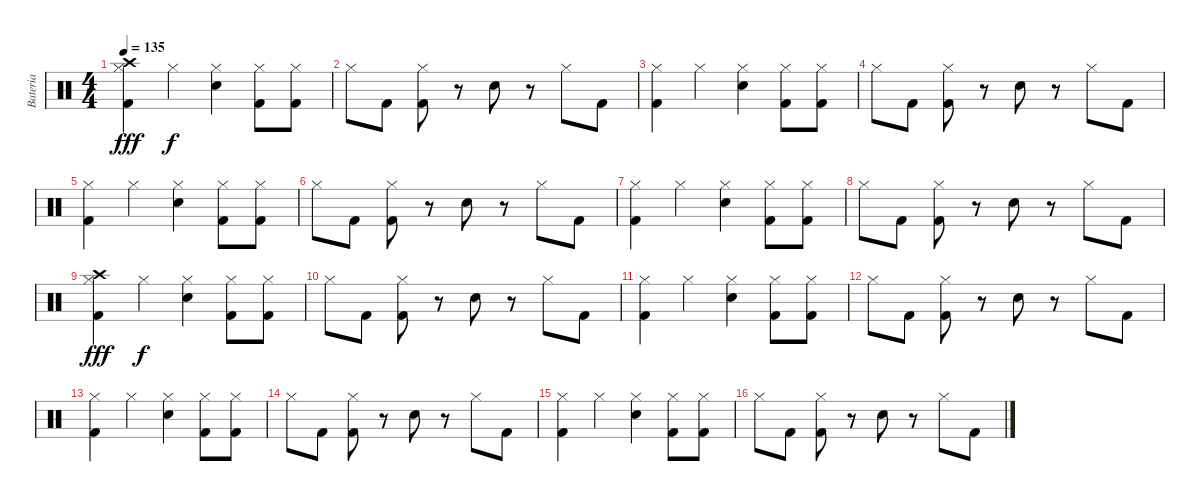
\track ("Bateria" "Bateria") {instrument percussion}
\staff {score}
\articulation defaults
\ts (4 4)
\tempo 135
\clef neutral
\ks c
("Kick (hit) 2" "Hi-Hat (closed)" "Crash high (hit)").4{dy fff} "Hi-Hat (closed)".4{dy f} ("Snare (hit) 2" "Hi-Hat (closed)").4 ("Kick (hit) 2" "Hi-Hat (closed)").8 ("Kick (hit) 2" "Hi-Hat (closed)").8 |
"Hi-Hat (closed)".8 "Kick (hit) 2".8 ("Kick (hit) 2" "Hi-Hat (closed)").8 r.8 "Snare (hit) 2".8 r.8 "Hi-Hat (closed)".8 "Kick (hit) 2".8 |
("Kick (hit) 2" "Hi-Hat (closed)").4 "Hi-Hat (closed)".4 ("Snare (hit) 2" "Hi-Hat (closed)").4 ("Kick (hit) 2" "Hi-Hat (closed)").8 ("Kick (hit) 2" "Hi-Hat (closed)").8 |
"Hi-Hat (closed)".8 "Kick (hit) 2".8 ("Kick (hit) 2" "Hi-Hat (closed)").8 r.8 "Snare (hit) 2".8 r.8 "Hi-Hat (closed)".8 "Kick (hit) 2".8 |
("Kick (hit) 2" "Hi-Hat (closed)").4 "Hi-Hat (closed)".4 ("Snare (hit) 2" "Hi-Hat (closed)").4 ("Kick (hit) 2" "Hi-Hat (closed)").8 ("Kick (hit) 2" "Hi-Hat (closed)").8 |
"Hi-Hat (closed)".8 "Kick (hit) 2".8 ("Kick (hit) 2" "Hi-Hat (closed)").8 r.8 "Snare (hit) 2".8 r.8 "Hi-Hat (closed)".8 "Kick (hit) 2".8 |
("Kick (hit) 2" "Hi-Hat (closed)").4 "Hi-Hat (closed)".4 ("Snare (hit) 2" "Hi-Hat (closed)").4 ("Kick (hit) 2" "Hi-Hat (closed)").8 ("Kick (hit) 2" "Hi-Hat (closed)").8 |
"Hi-Hat (closed)".8 "Kick (hit) 2".8 ("Kick (hit) 2" "Hi-Hat (closed)").8 r.8 "Snare (hit) 2".8 r.8 "Hi-Hat (closed)".8 "Kick (hit) 2".8 |
("Kick (hit) 2" "Hi-Hat (closed)" "Crash high (hit)").4{dy fff} "Hi-Hat (closed)".4{dy f} ("Snare (hit) 2" "Hi-Hat (closed)").4 ("Kick (hit) 2" "Hi-Hat (closed)").8 ("Kick (hit) 2" "Hi-Hat (closed)").8 |
"Hi-Hat (closed)".8 "Kick (hit) 2".8 ("Kick (hit) 2" "Hi-Hat (closed)").8 r.8 "Snare (hit) 2".8 r.8 "Hi-Hat (closed)".8 "Kick (hit) 2".8 |
("Kick (hit) 2" "Hi-Hat (closed)").4 "Hi-Hat (closed)".4 ("Snare (hit) 2" "Hi-Hat (closed)").4 ("Kick (hit) 2" "Hi-Hat (closed)").8 ("Kick (hit) 2" "Hi-Hat (closed)").8 |
"Hi-Hat (closed)".8 "Kick (hit) 2".8 ("Kick (hit) 2" "Hi-Hat (closed)").8 r.8 "Snare (hit) 2".8 r.8 "Hi-Hat (closed)".8 "Kick (hit) 2".8 |
("Kick (hit) 2" "Hi-Hat (closed)").4 "Hi-Hat (closed)".4 ("Snare (hit) 2" "Hi-Hat (closed)").4 ("Kick (hit) 2" "Hi-Hat (closed)").8 ("Kick (hit) 2" "Hi-Hat (closed)").8 |
"Hi-Hat (closed)".8 "Kick (hit) 2".8 ("Kick (hit) 2" "Hi-Hat (closed)").8 r.8 "Snare (hit) 2".8 r.8 "Hi-Hat (closed)".8 "Kick (hit) 2".8 |
("Kick (hit) 2" "Hi-Hat (closed)").4 "Hi-Hat (closed)".4 ("Snare (hit) 2" "Hi-Hat (closed)").4 ("Kick (hit) 2" "Hi-Hat (closed)").8 ("Kick (hit) 2" "Hi-Hat (closed)").8 |
"Hi-Hat (closed)".8 "Kick (hit) 2".8 ("Kick (hit) 2" "Hi-Hat (closed)").8 r.8 "Snare (hit) 2".8 r.8 "Hi-Hat (closed)".8 "Kick (hit) 2".8
